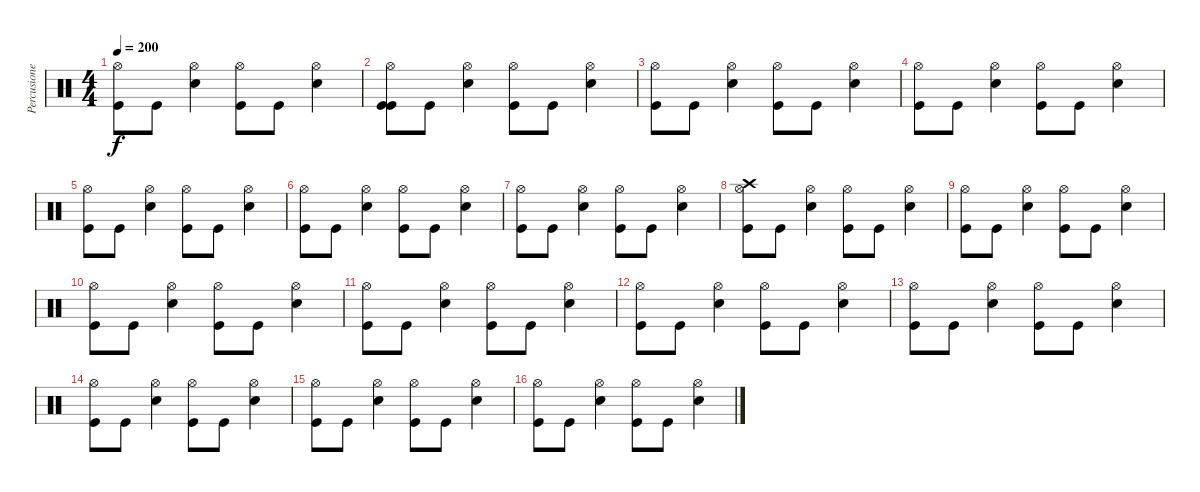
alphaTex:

\track ("Percusiones" "Percusione") {instrument percussion}
\staff {score}
\articulation defaults
\ts (4 4)
\tempo 200
\clef neutral
\ks c
("Kick (hit)" "Hi-Hat (open)").8{dy f} "Kick (hit)".8 ("Electric Snare (hit)" "Hi-Hat (open)").4 ("Hi-Hat (open)" "Kick (hit)").8 "Kick (hit)".8 ("Electric Snare (hit)" "Hi-Hat (open)").4 |
("Kick (hit)" "Hi-Hat (open)" "Kick (hit)").8 "Kick (hit)".8 ("Hi-Hat (open)" "Electric Snare (hit)").4 ("Hi-Hat (open)" "Kick (hit)").8 "Kick (hit)".8 ("Hi-Hat (open)" "Electric Snare (hit)").4 |
("Kick (hit)" "Hi-Hat (open)").8 "Kick (hit)".8 ("Electric Snare (hit)" "Hi-Hat (open)").4 ("Hi-Hat (open)" "Kick (hit)").8 "Kick (hit)".8 ("Electric Snare (hit)" "Hi-Hat (open)").4 |
("Kick (hit)" "Hi-Hat (open)").8 "Kick (hit)".8 ("Electric Snare (hit)" "Hi-Hat (open)").4 ("Hi-Hat (open)" "Kick (hit)").8 "Kick (hit)".8 ("Electric Snare (hit)" "Hi-Hat (open)").4 |
("Kick (hit)" "Hi-Hat (open)").8 "Kick (hit)".8 ("Electric Snare (hit)" "Hi-Hat (open)").4 ("Hi-Hat (open)" "Kick (hit)").8 "Kick (hit)".8 ("Electric Snare (hit)" "Hi-Hat (open)").4 |
("Kick (hit)" "Hi-Hat (open)").8 "Kick (hit)".8 ("Electric Snare (hit)" "Hi-Hat (open)").4 ("Hi-Hat (open)" "Kick (hit)").8 "Kick (hit)".8 ("Electric Snare (hit)" "Hi-Hat (open)").4 |
("Kick (hit)" "Hi-Hat (open)").8 "Kick (hit)".8 ("Electric Snare (hit)" "Hi-Hat (open)").4 ("Hi-Hat (open)" "Kick (hit)").8 "Kick (hit)".8 ("Electric Snare (hit)" "Hi-Hat (open)").4 |
("Crash high (hit)" "Hi-Hat (open)" "Kick (hit)").8 "Kick (hit)".8 ("Hi-Hat (open)" "Electric Snare (hit)").4 ("Hi-Hat (open)" "Kick (hit)").8 "Kick (hit)".8 ("Hi-Hat (open)" "Electric Snare (hit)").4 |
("Kick (hit)" "Hi-Hat (open)").8 "Kick (hit)".8 ("Electric Snare (hit)" "Hi-Hat (open)").4 ("Hi-Hat (open)" "Kick (hit)").8 "Kick (hit)".8 ("Electric Snare (hit)" "Hi-Hat (open)").4 |
("Kick (hit)" "Hi-Hat (open)").8 "Kick (hit)".8 ("Electric Snare (hit)" "Hi-Hat (open)").4 ("Hi-Hat (open)" "Kick (hit)").8 "Kick (hit)".8 ("Electric Snare (hit)" "Hi-Hat (open)").4 |
("Kick (hit)" "Hi-Hat (open)").8 "Kick (hit)".8 ("Electric Snare (hit)" "Hi-Hat (open)").4 ("Hi-Hat (open)" "Kick (hit)").8 "Kick (hit)".8 ("Electric Snare (hit)" "Hi-Hat (open)").4 |
("Kick (hit)" "Hi-Hat (open)").8 "Kick (hit)".8 ("Electric Snare (hit)" "Hi-Hat (open)").4 ("Hi-Hat (open)" "Kick (hit)").8 "Kick (hit)".8 ("Electric Snare (hit)" "Hi-Hat (open)").4 |
("Kick (hit)" "Hi-Hat (open)").8 "Kick (hit)".8 ("Electric Snare (hit)" "Hi-Hat (open)").4 ("Hi-Hat (open)" "Kick (hit)").8 "Kick (hit)".8 ("Electric Snare (hit)" "Hi-Hat (open)").4 |
("Kick (hit)" "Hi-Hat (open)").8 "Kick (hit)".8 ("Electric Snare (hit)" "Hi-Hat (open)").4 ("Kick (hit)" "Hi-Hat (open)").8 "Kick (hit)".8 ("Electric Snare (hit)" "Hi-Hat (open)").4 |
("Kick (hit)" "Hi-Hat (open)").8 "Kick (hit)".8 ("Electric Snare (hit)" "Hi-Hat (open)").4 ("Kick (hit)" "Hi-Hat (open)").8 "Kick (hit)".8 ("Electric Snare (hit)" "Hi-Hat (open)").4 |
("Kick (hit)" "Hi-Hat (open)").8 "Kick (hit)".8 ("Electric Snare (hit)" "Hi-Hat (open)").4 ("Kick (hit)" "Hi-Hat (open)").8 "Kick (hit)".8 ("Electric Snare (hit)" "Hi-Hat (open)").4
